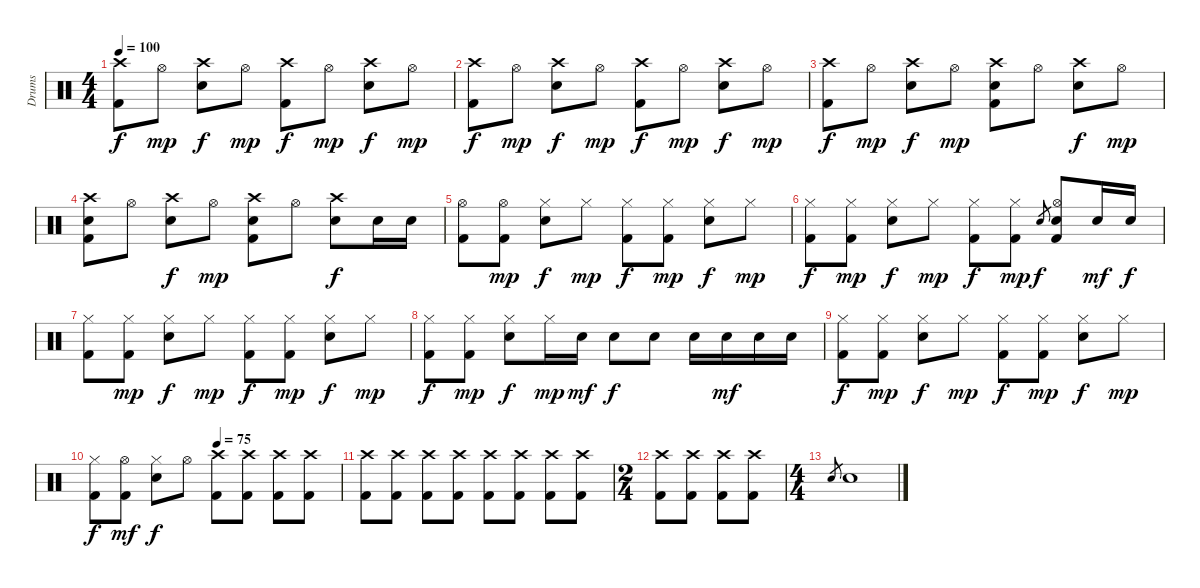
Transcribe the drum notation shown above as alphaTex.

\track ("Drums" "Drums") {instrument percussion}
\staff {score}
\articulation defaults
\ts (4 4)
\tempo 100
\clef neutral
\ks c
("Crash high (hit)" "Kick (hit) 2").8{dy f} "Hi-Hat (open)".8{dy mp} ("Crash high (hit)" "Snare (hit) 2").8{dy f} "Hi-Hat (open)".8{dy mp} ("Crash high (hit)" "Kick (hit) 2").8{dy f} "Hi-Hat (open)".8{dy mp} ("Crash high (hit)" "Snare (hit) 2").8{dy f} "Hi-Hat (open)".8{dy mp} |
("Crash high (hit)" "Kick (hit) 2").8{dy f} "Hi-Hat (open)".8{dy mp} ("Crash high (hit)" "Snare (hit) 2").8{dy f} "Hi-Hat (open)".8{dy mp} ("Crash high (hit)" "Kick (hit) 2").8{dy f} "Hi-Hat (open)".8{dy mp} ("Crash high (hit)" "Snare (hit) 2").8{dy f} "Hi-Hat (open)".8{dy mp} |
("Crash high (hit)" "Kick (hit) 2").8{dy f} "Hi-Hat (open)".8{dy mp} ("Crash high (hit)" "Snare (hit) 2").8{dy f} "Hi-Hat (open)".8{dy mp} ("Crash high (hit)" "Snare (hit) 2" "Kick (hit) 2").8 "Hi-Hat (open)".8 ("Crash high (hit)" "Snare (hit) 2").8{dy f} "Hi-Hat (open)".8{dy mp} |
("Crash high (hit)" "Snare (hit) 2" "Kick (hit) 2").8 "Hi-Hat (open)".8 ("Crash high (hit)" "Snare (hit) 2").8{dy f} "Hi-Hat (open)".8{dy mp} ("Crash high (hit)" "Snare (hit) 2" "Kick (hit) 2").8 "Hi-Hat (open)".8 ("Crash high (hit)" "Snare (hit) 2").8{dy f} "Snare (hit) 2".16 "Snare (hit) 2".16 |
("Hi-Hat (open)" "Kick (hit) 2").8 ("Hi-Hat (open)" "Kick (hit) 2").8{dy mp} ("Hi-Hat (closed)" "Snare (hit) 2").8{dy f} "Hi-Hat (closed)".8{dy mp} ("Hi-Hat (closed)" "Kick (hit) 2").8{dy f} ("Hi-Hat (closed)" "Kick (hit) 2").8{dy mp} ("Hi-Hat (closed)" "Snare (hit) 2").8{dy f} "Hi-Hat (closed)".8{dy mp} |
("Hi-Hat (closed)" "Kick (hit) 2").8{dy f} ("Hi-Hat (closed)" "Kick (hit) 2").8{dy mp} ("Hi-Hat (closed)" "Snare (hit) 2").8{dy f} "Hi-Hat (closed)".8{dy mp} ("Hi-Hat (closed)" "Kick (hit) 2").8{dy f} ("Hi-Hat (closed)" "Kick (hit) 2").8{dy mp} "Snare (hit) 2".8{gr dy f} ("Hi-Hat (open)" "Snare (hit) 2" "Kick (hit) 2").8 "Snare (hit) 2".16{dy mf} "Snare (hit) 2".16{dy f} |
("Hi-Hat (closed)" "Kick (hit) 2").8 ("Hi-Hat (closed)" "Kick (hit) 2").8{dy mp} ("Hi-Hat (closed)" "Snare (hit) 2").8{dy f} "Hi-Hat (closed)".8{dy mp} ("Hi-Hat (closed)" "Kick (hit) 2").8{dy f} ("Hi-Hat (closed)" "Kick (hit) 2").8{dy mp} ("Hi-Hat (closed)" "Snare (hit) 2").8{dy f} "Hi-Hat (closed)".8{dy mp} |
("Hi-Hat (closed)" "Kick (hit) 2").8{dy f} ("Hi-Hat (closed)" "Kick (hit) 2").8{dy mp} ("Hi-Hat (closed)" "Snare (hit) 2").8{dy f} "Hi-Hat (closed)".16{dy mp} "Snare (hit) 2".16{dy mf} "Snare (hit) 2".8{dy f} "Snare (hit) 2".8 "Snare (hit) 2".16 "Snare (hit) 2".16{dy mf} "Snare (hit) 2".16 "Snare (hit) 2".16 |
("Hi-Hat (closed)" "Kick (hit) 2").8{dy f} ("Hi-Hat (closed)" "Kick (hit) 2").8{dy mp} ("Hi-Hat (closed)" "Snare (hit) 2").8{dy f} "Hi-Hat (closed)".8{dy mp} ("Hi-Hat (closed)" "Kick (hit) 2").8{dy f} ("Hi-Hat (closed)" "Kick (hit) 2").8{dy mp} ("Hi-Hat (closed)" "Snare (hit) 2").8{dy f} "Hi-Hat (closed)".8{dy mp} |
\tempo (80 0.5)
\tempo (75 0.5)
("Hi-Hat (closed)" "Kick (hit) 2").8{dy f} ("Hi-Hat (open)" "Kick (hit) 2").8{dy mf} ("Hi-Hat (closed)" "Snare (hit) 2").8{dy f} "Hi-Hat (open)".8 ("Crash high (hit)" "Kick (hit) 2").8{volume 13} ("Crash high (hit)" "Kick (hit) 2").8 ("Crash high (hit)" "Kick (hit) 2").8 ("Crash high (hit)" "Kick (hit) 2").8 |
("Crash high (hit)" "Kick (hit) 2").8 ("Crash high (hit)" "Kick (hit) 2").8 ("Crash high (hit)" "Kick (hit) 2").8 ("Crash high (hit)" "Kick (hit) 2").8 ("Crash high (hit)" "Kick (hit) 2").8 ("Crash high (hit)" "Kick (hit) 2").8 ("Crash high (hit)" "Kick (hit) 2").8 ("Crash high (hit)" "Kick (hit) 2").8 |
\ts (2 4)
("Crash high (hit)" "Kick (hit) 2").8 ("Crash high (hit)" "Kick (hit) 2").8 ("Crash high (hit)" "Kick (hit) 2").8 ("Crash high (hit)" "Kick (hit) 2").8 |
\ts (4 4)
"Snare (hit) 2".8{gr} "Snare (hit) 2".1
